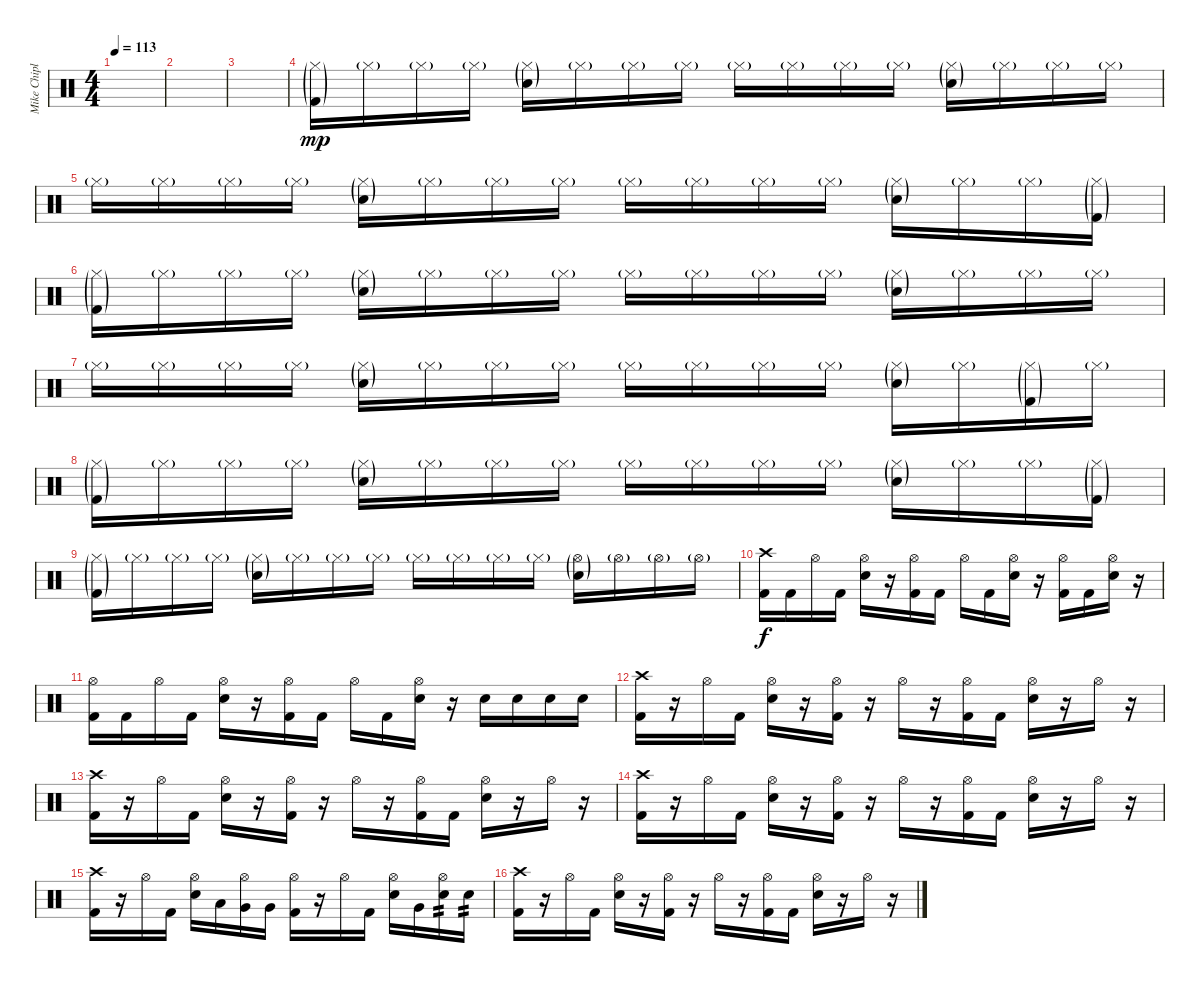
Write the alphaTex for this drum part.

\track ("Mike Chiplin" "Mike Chipl") {instrument percussion}
\staff {score}
\articulation defaults
\ts (4 4)
\tempo 113
\clef neutral
\ks c
|
|
|
("Hi-Hat (closed)"{g} "Kick (hit) 2"{g}).16{dy mp} "Hi-Hat (closed)"{g}.16 "Hi-Hat (closed)"{g}.16 "Hi-Hat (closed)"{g}.16 ("Hi-Hat (closed)"{g} "Electric Snare (hit)"{g}).16 "Hi-Hat (closed)"{g}.16 "Hi-Hat (closed)"{g}.16 "Hi-Hat (closed)"{g}.16 "Hi-Hat (closed)"{g}.16 "Hi-Hat (closed)"{g}.16 "Hi-Hat (closed)"{g}.16 "Hi-Hat (closed)"{g}.16 ("Hi-Hat (closed)"{g} "Electric Snare (hit)"{g}).16 "Hi-Hat (closed)"{g}.16 "Hi-Hat (closed)"{g}.16 "Hi-Hat (closed)"{g}.16 |
"Hi-Hat (closed)"{g}.16 "Hi-Hat (closed)"{g}.16 "Hi-Hat (closed)"{g}.16 "Hi-Hat (closed)"{g}.16 ("Hi-Hat (closed)"{g} "Electric Snare (hit)"{g}).16 "Hi-Hat (closed)"{g}.16 "Hi-Hat (closed)"{g}.16 "Hi-Hat (closed)"{g}.16 "Hi-Hat (closed)"{g}.16 "Hi-Hat (closed)"{g}.16 "Hi-Hat (closed)"{g}.16 "Hi-Hat (closed)"{g}.16 ("Hi-Hat (closed)"{g} "Electric Snare (hit)"{g}).16 "Hi-Hat (closed)"{g}.16 "Hi-Hat (closed)"{g}.16 ("Hi-Hat (closed)"{g} "Kick (hit) 2"{g}).16 |
("Hi-Hat (closed)"{g} "Kick (hit) 2"{g}).16 "Hi-Hat (closed)"{g}.16 "Hi-Hat (closed)"{g}.16 "Hi-Hat (closed)"{g}.16 ("Hi-Hat (closed)"{g} "Electric Snare (hit)"{g}).16 "Hi-Hat (closed)"{g}.16 "Hi-Hat (closed)"{g}.16 "Hi-Hat (closed)"{g}.16 "Hi-Hat (closed)"{g}.16 "Hi-Hat (closed)"{g}.16 "Hi-Hat (closed)"{g}.16 "Hi-Hat (closed)"{g}.16 ("Hi-Hat (closed)"{g} "Electric Snare (hit)"{g}).16 "Hi-Hat (closed)"{g}.16 "Hi-Hat (closed)"{g}.16 "Hi-Hat (closed)"{g}.16 |
"Hi-Hat (closed)"{g}.16 "Hi-Hat (closed)"{g}.16 "Hi-Hat (closed)"{g}.16 "Hi-Hat (closed)"{g}.16 ("Hi-Hat (closed)"{g} "Electric Snare (hit)"{g}).16 "Hi-Hat (closed)"{g}.16 "Hi-Hat (closed)"{g}.16 "Hi-Hat (closed)"{g}.16 "Hi-Hat (closed)"{g}.16 "Hi-Hat (closed)"{g}.16 "Hi-Hat (closed)"{g}.16 "Hi-Hat (closed)"{g}.16 ("Hi-Hat (closed)"{g} "Electric Snare (hit)"{g}).16 "Hi-Hat (closed)"{g}.16 ("Hi-Hat (closed)"{g} "Kick (hit) 2"{g}).16 "Hi-Hat (closed)"{g}.16 |
("Hi-Hat (closed)"{g} "Kick (hit) 2"{g}).16 "Hi-Hat (closed)"{g}.16 "Hi-Hat (closed)"{g}.16 "Hi-Hat (closed)"{g}.16 ("Hi-Hat (closed)"{g} "Electric Snare (hit)"{g}).16 "Hi-Hat (closed)"{g}.16 "Hi-Hat (closed)"{g}.16 "Hi-Hat (closed)"{g}.16 "Hi-Hat (closed)"{g}.16 "Hi-Hat (closed)"{g}.16 "Hi-Hat (closed)"{g}.16 "Hi-Hat (closed)"{g}.16 ("Hi-Hat (closed)"{g} "Electric Snare (hit)"{g}).16 "Hi-Hat (closed)"{g}.16 "Hi-Hat (closed)"{g}.16 ("Hi-Hat (closed)"{g} "Kick (hit) 2"{g}).16 |
("Hi-Hat (closed)"{g} "Kick (hit) 2"{g}).16 "Hi-Hat (closed)"{g}.16 "Hi-Hat (closed)"{g}.16 "Hi-Hat (closed)"{g}.16 ("Hi-Hat (closed)"{g} "Electric Snare (hit)"{g}).16 "Hi-Hat (closed)"{g}.16 "Hi-Hat (closed)"{g}.16 "Hi-Hat (closed)"{g}.16 "Hi-Hat (closed)"{g}.16 "Hi-Hat (closed)"{g}.16 "Hi-Hat (closed)"{g}.16 "Hi-Hat (closed)"{g}.16 ("Hi-Hat (open)"{g} "Electric Snare (hit)"{g}).16{volume 10} "Hi-Hat (open)"{g}.16{volume 12} "Hi-Hat (open)"{g}.16{volume 14} "Hi-Hat (open)"{g}.16{volume 15} |
("Crash high (hit)" "Kick (hit) 2").16{dy f} "Kick (hit) 2".16 "Hi-Hat (open)".16 "Kick (hit) 2".16 ("Hi-Hat (open)" "Snare (hit) 2").16 r.16 ("Hi-Hat (open)" "Kick (hit) 2").16 "Kick (hit) 2".16 "Hi-Hat (open)".16 "Kick (hit) 2".16 ("Hi-Hat (open)" "Snare (hit) 2").16 r.16 ("Hi-Hat (open)" "Kick (hit) 2").16 "Kick (hit) 2".16 ("Hi-Hat (open)" "Snare (hit) 2").16 r.16 |
("Hi-Hat (open)" "Kick (hit) 2").16 "Kick (hit) 2".16 "Hi-Hat (open)".16 "Kick (hit) 2".16 ("Hi-Hat (open)" "Snare (hit) 2").16 r.16 ("Hi-Hat (open)" "Kick (hit) 2").16 "Kick (hit) 2".16 "Hi-Hat (open)".16 "Kick (hit) 2".16 ("Hi-Hat (open)" "Snare (hit) 2").16 r.16 "Snare (hit) 2".16 "Snare (hit) 2".16 "Snare (hit) 2".16 "Snare (hit) 2".16 |
("Crash high (hit)" "Kick (hit) 2").16 r.16 "Hi-Hat (open)".16 "Kick (hit) 2".16 ("Hi-Hat (open)" "Snare (hit) 2").16 r.16 ("Hi-Hat (open)" "Kick (hit) 2").16 r.16 "Hi-Hat (open)".16 r.16 ("Hi-Hat (open)" "Kick (hit) 2").16 "Kick (hit) 2".16 ("Hi-Hat (open)" "Snare (hit) 2").16 r.16 "Hi-Hat (open)".16 r.16 |
("Crash high (hit)" "Kick (hit) 2").16 r.16 "Hi-Hat (open)".16 "Kick (hit) 2".16 ("Hi-Hat (open)" "Snare (hit) 2").16 r.16 ("Hi-Hat (open)" "Kick (hit) 2").16 r.16 "Hi-Hat (open)".16 r.16 ("Hi-Hat (open)" "Kick (hit) 2").16 "Kick (hit) 2".16 ("Hi-Hat (open)" "Snare (hit) 2").16 r.16 "Hi-Hat (open)".16 r.16 |
("Crash high (hit)" "Kick (hit) 2").16 r.16 "Hi-Hat (open)".16 "Kick (hit) 2".16 ("Hi-Hat (open)" "Snare (hit) 2").16 r.16 ("Hi-Hat (open)" "Kick (hit) 2").16 r.16 "Hi-Hat (open)".16 r.16 ("Hi-Hat (open)" "Kick (hit) 2").16 "Kick (hit) 2".16 ("Hi-Hat (open)" "Snare (hit) 2").16 r.16 "Hi-Hat (open)".16 r.16 |
("Crash high (hit)" "Kick (hit) 2").16 r.16 "Hi-Hat (open)".16 "Kick (hit) 2".16 ("Hi-Hat (open)" "Snare (hit) 2").16 "Low Tom (hit)".16 ("Hi-Hat (open)" "Very Low Tom (hit)").16 "Very Low Tom (hit)".16 ("Hi-Hat (open)" "Kick (hit) 2").16 r.16 "Hi-Hat (open)".16 "Kick (hit) 2".16 ("Hi-Hat (open)" "Snare (hit) 2").16 "Very Low Tom (hit)".16 ("Hi-Hat (open)" "Snare (hit) 2").16{tp 2} "Snare (hit) 2".16{tp 2} |
("Crash high (hit)" "Kick (hit) 2").16 r.16 "Hi-Hat (open)".16 "Kick (hit) 2".16 ("Hi-Hat (open)" "Snare (hit) 2").16 r.16 ("Hi-Hat (open)" "Kick (hit) 2").16 r.16 "Hi-Hat (open)".16 r.16 ("Hi-Hat (open)" "Kick (hit) 2").16 "Kick (hit) 2".16 ("Hi-Hat (open)" "Snare (hit) 2").16 r.16 "Hi-Hat (open)".16 r.16
